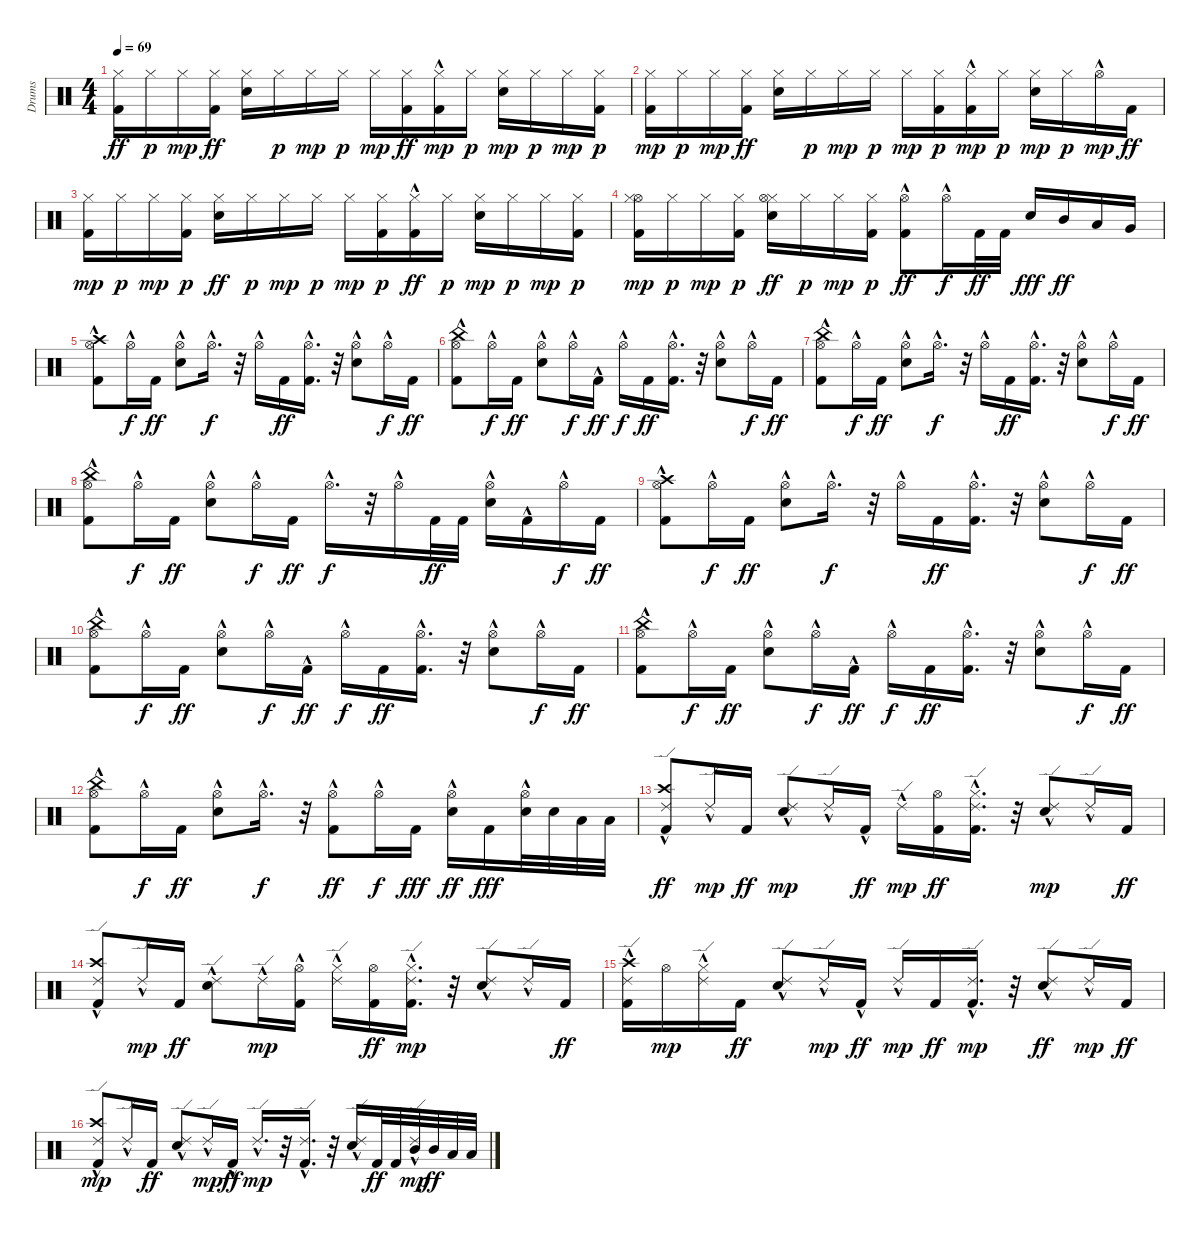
\track ("Drums" "Drums") {instrument percussion}
\staff {score}
\articulation defaults
\ts (4 4)
\tempo 69
\clef neutral
\ks c
("Hi-Hat (closed)" "Kick (hit) 2").16{dy ff} "Hi-Hat (closed)".16{dy p} "Hi-Hat (closed)".16{dy mp} ("Hi-Hat (closed)" "Kick (hit) 2").16{dy ff} ("Hi-Hat (closed)" "Electric Snare (hit)").16 "Hi-Hat (closed)".16{dy p} "Hi-Hat (closed)".16{dy mp} "Hi-Hat (closed)".16{dy p} "Hi-Hat (closed)".16{dy mp} ("Hi-Hat (closed)" "Kick (hit) 2").16{dy ff} ("Kick (hit) 2"{hac} "Hi-Hat (closed)").16{dy mp} "Hi-Hat (closed)".16{dy p} ("Electric Snare (hit)" "Hi-Hat (closed)").16{dy mp} "Hi-Hat (closed)".16{dy p} "Hi-Hat (closed)".16{dy mp} ("Kick (hit) 2" "Hi-Hat (closed)").16{dy p} |
("Kick (hit) 2" "Hi-Hat (closed)").16{dy mp} "Hi-Hat (closed)".16{dy p} "Hi-Hat (closed)".16{dy mp} ("Hi-Hat (closed)" "Kick (hit) 2").16{dy ff} ("Hi-Hat (closed)" "Electric Snare (hit)").16 "Hi-Hat (closed)".16{dy p} "Hi-Hat (closed)".16{dy mp} "Hi-Hat (closed)".16{dy p} "Hi-Hat (closed)".16{dy mp} ("Kick (hit) 2" "Hi-Hat (closed)").16{dy p} ("Kick (hit) 2"{hac} "Hi-Hat (closed)").16{dy mp} "Hi-Hat (closed)".16{dy p} ("Electric Snare (hit)" "Hi-Hat (closed)").16{dy mp} "Hi-Hat (closed)".16{dy p} "Hi-Hat (open)"{hac}.16{dy mp} "Kick (hit) 2".16{dy ff} |
("Kick (hit) 2" "Hi-Hat (closed)").16{dy mp} "Hi-Hat (closed)".16{dy p} "Hi-Hat (closed)".16{dy mp} ("Kick (hit) 2" "Hi-Hat (closed)").16{dy p} ("Hi-Hat (closed)" "Electric Snare (hit)").16{dy ff} "Hi-Hat (closed)".16{dy p} "Hi-Hat (closed)".16{dy mp} "Hi-Hat (closed)".16{dy p} "Hi-Hat (closed)".16{dy mp} ("Kick (hit) 2" "Hi-Hat (closed)").16{dy p} ("Hi-Hat (closed)" "Kick (hit) 2"{hac}).16{dy ff} "Hi-Hat (closed)".16{dy p} ("Electric Snare (hit)" "Hi-Hat (closed)").16{dy mp} "Hi-Hat (closed)".16{dy p} "Hi-Hat (closed)".16{dy mp} ("Kick (hit) 2" "Hi-Hat (closed)").16{dy p} |
("Kick (hit) 2" "Hi-Hat (open)" "Hi-Hat (closed)").16{dy mp} "Hi-Hat (closed)".16{dy p} "Hi-Hat (closed)".16{dy mp} ("Kick (hit) 2" "Hi-Hat (closed)").16{dy p} ("Hi-Hat (closed)" "Hi-Hat (open)" "Electric Snare (hit)").16{dy ff} "Hi-Hat (closed)".16{dy p} "Hi-Hat (closed)".16{dy mp} ("Kick (hit) 2" "Hi-Hat (closed)").16{dy p} ("Hi-Hat (open)"{hac} "Kick (hit) 2").8{dy ff} "Hi-Hat (open)"{hac}.16{dy f} "Kick (hit) 2".32{dy ff} "Kick (hit) 2".32 "Electric Snare (hit)".16{dy fff} "Mid Tom (hit)".16{dy ff} "Low Tom (hit)".16 "Very Low Tom (hit)".16 |
("Crash high (hit)"{hac} "Hi-Hat (open)"{hac} "Kick (hit) 2").8 "Hi-Hat (open)"{hac}.16{dy f} "Kick (hit) 2".16{dy ff} ("Electric Snare (hit)" "Hi-Hat (open)"{hac}).8 "Hi-Hat (open)"{hac}.16{d dy f} r.32 "Hi-Hat (open)"{hac}.16 "Kick (hit) 2".16{dy ff} ("Kick (hit) 2"{hac} "Hi-Hat (open)"{hac}).16{d} r.32 ("Electric Snare (hit)" "Hi-Hat (open)"{hac}).8 "Hi-Hat (open)"{hac}.16{dy f} "Kick (hit) 2".16{dy ff} |
("Kick (hit) 2" "China (hit)"{hac} "Hi-Hat (open)"{hac}).8 "Hi-Hat (open)"{hac}.16{dy f} "Kick (hit) 2".16{dy ff} ("Hi-Hat (open)"{hac} "Electric Snare (hit)").8 "Hi-Hat (open)"{hac}.16{dy f} "Kick (hit) 2"{hac}.16{dy ff} "Hi-Hat (open)"{hac}.16{dy f} "Kick (hit) 2".16{dy ff} ("Kick (hit) 2"{hac} "Hi-Hat (open)"{hac}).16{d} r.32 ("Electric Snare (hit)" "Hi-Hat (open)"{hac}).8 "Hi-Hat (open)"{hac}.16{dy f} "Kick (hit) 2".16{dy ff} |
("Kick (hit) 2" "China (hit)"{hac} "Hi-Hat (open)"{hac}).8 "Hi-Hat (open)"{hac}.16{dy f} "Kick (hit) 2".16{dy ff} ("Hi-Hat (open)"{hac} "Electric Snare (hit)").8 "Hi-Hat (open)"{hac}.16{d dy f} r.32 "Hi-Hat (open)"{hac}.16 "Kick (hit) 2".16{dy ff} ("Kick (hit) 2"{hac} "Hi-Hat (open)"{hac}).16{d} r.32 ("Electric Snare (hit)" "Hi-Hat (open)"{hac}).8 "Hi-Hat (open)"{hac}.16{dy f} "Kick (hit) 2".16{dy ff} |
("Kick (hit) 2" "China (hit)"{hac} "Hi-Hat (open)"{hac}).8 "Hi-Hat (open)"{hac}.16{dy f} "Kick (hit) 2".16{dy ff} ("Electric Snare (hit)" "Hi-Hat (open)"{hac}).8 "Hi-Hat (open)"{hac}.16{dy f} "Kick (hit) 2".16{dy ff} "Hi-Hat (open)"{hac}.16{d dy f} r.32 "Hi-Hat (open)"{hac}.16 "Kick (hit) 2".32{dy ff} "Kick (hit) 2".32 ("Hi-Hat (open)"{hac} "Electric Snare (hit)").16 "Kick (hit) 2"{hac}.16 "Hi-Hat (open)"{hac}.16{dy f} "Kick (hit) 2".16{dy ff} |
("Kick (hit) 2" "Crash high (hit)"{hac} "Hi-Hat (open)"{hac}).8 "Hi-Hat (open)"{hac}.16{dy f} "Kick (hit) 2".16{dy ff} ("Electric Snare (hit)" "Hi-Hat (open)"{hac}).8 "Hi-Hat (open)"{hac}.16{d dy f} r.32 "Hi-Hat (open)"{hac}.16 "Kick (hit) 2".16{dy ff} ("Kick (hit) 2"{hac} "Hi-Hat (open)"{hac}).16{d} r.32 ("Electric Snare (hit)" "Hi-Hat (open)"{hac}).8 "Hi-Hat (open)"{hac}.16{dy f} "Kick (hit) 2".16{dy ff} |
("Kick (hit) 2" "China (hit)"{hac} "Hi-Hat (open)"{hac}).8 "Hi-Hat (open)"{hac}.16{dy f} "Kick (hit) 2".16{dy ff} ("Hi-Hat (open)"{hac} "Electric Snare (hit)").8 "Hi-Hat (open)"{hac}.16{dy f} "Kick (hit) 2"{hac}.16{dy ff} "Hi-Hat (open)"{hac}.16{dy f} "Kick (hit) 2".16{dy ff} ("Hi-Hat (open)"{hac} "Kick (hit) 2"{hac}).16{d} r.32 ("Hi-Hat (open)"{hac} "Electric Snare (hit)").8 "Hi-Hat (open)"{hac}.16{dy f} "Kick (hit) 2".16{dy ff} |
("Kick (hit) 2" "China (hit)"{hac} "Hi-Hat (open)"{hac}).8 "Hi-Hat (open)"{hac}.16{dy f} "Kick (hit) 2".16{dy ff} ("Hi-Hat (open)"{hac} "Electric Snare (hit)").8 "Hi-Hat (open)"{hac}.16{dy f} "Kick (hit) 2"{hac}.16{dy ff} "Hi-Hat (open)"{hac}.16{dy f} "Kick (hit) 2".16{dy ff} ("Kick (hit) 2"{hac} "Hi-Hat (open)"{hac}).16{d} r.32 ("Electric Snare (hit)" "Hi-Hat (open)"{hac}).8 "Hi-Hat (open)"{hac}.16{dy f} "Kick (hit) 2".16{dy ff} |
("Kick (hit) 2" "China (hit)"{hac} "Hi-Hat (open)"{hac}).8 "Hi-Hat (open)"{hac}.16{dy f} "Kick (hit) 2".16{dy ff} ("Electric Snare (hit)" "Hi-Hat (open)"{hac}).8 "Hi-Hat (open)"{hac}.16{d dy f} r.32 ("Kick (hit) 2" "Hi-Hat (open)"{hac}).8{dy ff} "Hi-Hat (open)"{hac}.16{dy f} "Kick (hit) 2".16{dy fff} ("Electric Snare (hit)" "Hi-Hat (open)"{hac}).16{dy ff} "Kick (hit) 2".16{dy fff} ("Electric Snare (hit)" "Hi-Hat (open)"{hac}).32 "Electric Snare (hit)".32 "Low Tom (hit)".32 "Low Tom (hit)".32 |
("Ride (edge) 2"{hac} "Crash high (hit)"{hac} "Kick (hit) 2").8{dy ff} "Ride (edge) 2"{hac}.16{dy mp} "Kick (hit) 2".16{dy ff} ("Electric Snare (hit)" "Ride (edge) 2"{hac}).8{dy mp} "Ride (edge) 2"{hac}.16 "Kick (hit) 2"{hac}.16{dy ff} "Ride (edge) 2"{hac}.16{dy mp} ("Hi-Hat (open)" "Kick (hit) 2").16{dy ff} ("Ride (edge) 2"{hac} "Hi-Hat (closed)" "Kick (hit) 2"{hac}).16{d} r.32 ("Electric Snare (hit)" "Ride (edge) 2"{hac}).8{dy mp} "Ride (edge) 2"{hac}.16 "Kick (hit) 2".16{dy ff} |
("Ride (edge) 2"{hac} "Crash high (hit)"{hac} "Kick (hit) 2").8 "Ride (edge) 2"{hac}.16{dy mp} "Kick (hit) 2".16{dy ff} ("Ride (edge) 2"{hac} "Electric Snare (hit)").8 "Ride (edge) 2"{hac}.16{dy mp} ("Kick (hit) 2"{hac} "Hi-Hat (open)").16 ("Hi-Hat (closed)" "Ride (edge) 2"{hac}).16 ("Hi-Hat (open)" "Kick (hit) 2").16{dy ff} ("Hi-Hat (closed)" "Kick (hit) 2"{hac} "Ride (edge) 2"{hac}).16{d dy mp} r.32 ("Electric Snare (hit)" "Ride (edge) 2"{hac}).8 "Ride (edge) 2"{hac}.16 "Kick (hit) 2".16{dy ff} |
("Ride (edge) 2"{hac} "Kick (hit) 2" "Crash high (hit)"{hac}).16 "Hi-Hat (open)".16{dy mp} ("Ride (edge) 2"{hac} "Hi-Hat (closed)").16 "Kick (hit) 2".16{dy ff} ("Ride (edge) 2"{hac} "Electric Snare (hit)").8 "Ride (edge) 2"{hac}.16{dy mp} "Kick (hit) 2"{hac}.16{dy ff} "Ride (edge) 2"{hac}.16{dy mp} "Kick (hit) 2".16{dy ff} ("Kick (hit) 2"{hac} "Ride (edge) 2"{hac}).16{d dy mp} r.32 ("Ride (edge) 2"{hac} "Electric Snare (hit)").8{dy ff} "Ride (edge) 2"{hac}.16{dy mp} "Kick (hit) 2".16{dy ff} |
("Crash high (hit)"{hac} "Kick (hit) 2" "Ride (edge) 2"{hac}).8{dy mp} "Ride (edge) 2"{hac}.16 "Kick (hit) 2".16{dy ff} ("Ride (edge) 2"{hac} "Electric Snare (hit)").8 "Ride (edge) 2"{hac}.16{dy mp} "Kick (hit) 2"{hac}.16{dy ff} "Ride (edge) 2"{hac}.16{d dy mp} r.32 ("Kick (hit) 2"{hac} "Ride (edge) 2"{hac}).16{d} r.32 ("Electric Snare (hit)" "Ride (edge) 2"{hac}).16 "Kick (hit) 2".32{dy ff} "Kick (hit) 2".32 ("Mid Tom (hit)" "Ride (edge) 2"{hac}).32{dy mp} "Mid Tom (hit)".32{dy ff} "Low Tom (hit)".32 "Low Tom (hit)".32
